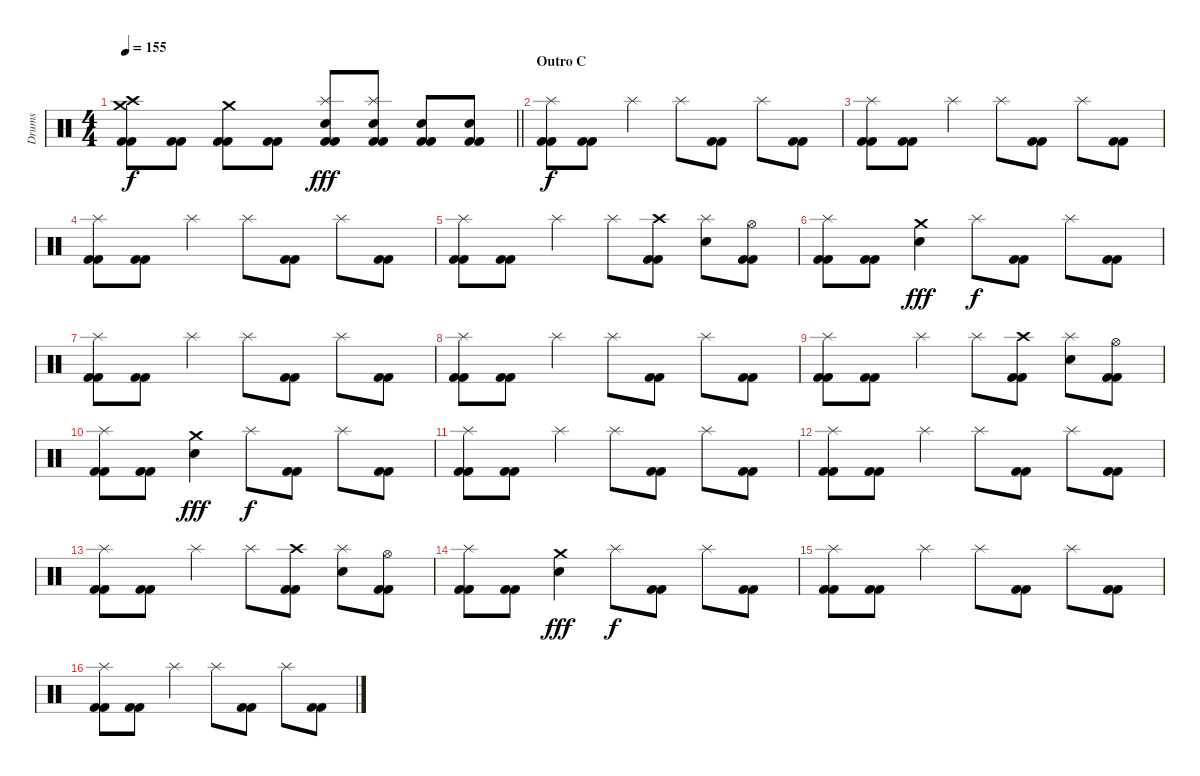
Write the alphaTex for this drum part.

\track ("Drums" "Drums") {instrument percussion}
\staff {score}
\articulation defaults
\ts (4 4)
\tempo 155
\clef neutral
\barLineRight lightlight
\ks c
("Crash medium (hit)" "Crash high (hit)" "Kick (hit) 2" "Kick (hit) 2").8{dy f} ("Kick (hit) 2" "Kick (hit) 2").8 ("Crash medium (hit)" "Kick (hit) 2" "Kick (hit) 2").8 ("Kick (hit) 2" "Kick (hit) 2").8 ("Splash (hit)" "Electric Snare (hit)" "Kick (hit) 2" "Kick (hit) 2").8{dy fff} ("Splash (hit)" "Electric Snare (hit)" "Kick (hit) 2" "Kick (hit) 2").8 ("Electric Snare (hit)" "Kick (hit) 2" "Kick (hit) 2").8 ("Electric Snare (hit)" "Kick (hit) 2" "Kick (hit) 2").8 |
\section ("" "Outro C")
("Splash (hit)" "Kick (hit) 2" "Kick (hit) 2").8{dy f} ("Kick (hit) 2" "Kick (hit) 2").8 "Splash (hit)".4 "Splash (hit)".8 ("Kick (hit) 2" "Kick (hit) 2").8 "Splash (hit)".8 ("Kick (hit) 2" "Kick (hit) 2").8 |
("Splash (hit)" "Kick (hit) 2" "Kick (hit) 2").8 ("Kick (hit) 2" "Kick (hit) 2").8 "Splash (hit)".4 "Splash (hit)".8 ("Kick (hit) 2" "Kick (hit) 2").8 "Splash (hit)".8 ("Kick (hit) 2" "Kick (hit) 2").8 |
("Splash (hit)" "Kick (hit) 2" "Kick (hit) 2").8 ("Kick (hit) 2" "Kick (hit) 2").8 "Splash (hit)".4 "Splash (hit)".8 ("Kick (hit) 2" "Kick (hit) 2").8 "Splash (hit)".8 ("Kick (hit) 2" "Kick (hit) 2").8 |
("Splash (hit)" "Kick (hit) 2" "Kick (hit) 2").8 ("Kick (hit) 2" "Kick (hit) 2").8 "Splash (hit)".4 "Splash (hit)".8 ("Crash high (hit)" "Kick (hit) 2" "Kick (hit) 2").8 ("Splash (hit)" "Electric Snare (hit)").8 ("Hi-Hat (open)" "Kick (hit) 2" "Kick (hit) 2").8 |
("Splash (hit)" "Kick (hit) 2" "Kick (hit) 2").8 ("Kick (hit) 2" "Kick (hit) 2").8 ("Crash medium (hit)" "Electric Snare (hit)").4{dy fff} "Splash (hit)".8{dy f} ("Kick (hit) 2" "Kick (hit) 2").8 "Splash (hit)".8 ("Kick (hit) 2" "Kick (hit) 2").8 |
("Splash (hit)" "Kick (hit) 2" "Kick (hit) 2").8 ("Kick (hit) 2" "Kick (hit) 2").8 "Splash (hit)".4 "Splash (hit)".8 ("Kick (hit) 2" "Kick (hit) 2").8 "Splash (hit)".8 ("Kick (hit) 2" "Kick (hit) 2").8 |
("Splash (hit)" "Kick (hit) 2" "Kick (hit) 2").8 ("Kick (hit) 2" "Kick (hit) 2").8 "Splash (hit)".4 "Splash (hit)".8 ("Kick (hit) 2" "Kick (hit) 2").8 "Splash (hit)".8 ("Kick (hit) 2" "Kick (hit) 2").8 |
("Splash (hit)" "Kick (hit) 2" "Kick (hit) 2").8 ("Kick (hit) 2" "Kick (hit) 2").8 "Splash (hit)".4 "Splash (hit)".8 ("Crash high (hit)" "Kick (hit) 2" "Kick (hit) 2").8 ("Splash (hit)" "Electric Snare (hit)").8 ("Hi-Hat (open)" "Kick (hit) 2" "Kick (hit) 2").8 |
("Splash (hit)" "Kick (hit) 2" "Kick (hit) 2").8 ("Kick (hit) 2" "Kick (hit) 2").8 ("Crash medium (hit)" "Electric Snare (hit)").4{dy fff} "Splash (hit)".8{dy f} ("Kick (hit) 2" "Kick (hit) 2").8 "Splash (hit)".8 ("Kick (hit) 2" "Kick (hit) 2").8 |
("Splash (hit)" "Kick (hit) 2" "Kick (hit) 2").8 ("Kick (hit) 2" "Kick (hit) 2").8 "Splash (hit)".4 "Splash (hit)".8 ("Kick (hit) 2" "Kick (hit) 2").8 "Splash (hit)".8 ("Kick (hit) 2" "Kick (hit) 2").8 |
("Splash (hit)" "Kick (hit) 2" "Kick (hit) 2").8 ("Kick (hit) 2" "Kick (hit) 2").8 "Splash (hit)".4 "Splash (hit)".8 ("Kick (hit) 2" "Kick (hit) 2").8 "Splash (hit)".8 ("Kick (hit) 2" "Kick (hit) 2").8 |
("Splash (hit)" "Kick (hit) 2" "Kick (hit) 2").8 ("Kick (hit) 2" "Kick (hit) 2").8 "Splash (hit)".4 "Splash (hit)".8 ("Crash high (hit)" "Kick (hit) 2" "Kick (hit) 2").8 ("Splash (hit)" "Electric Snare (hit)").8 ("Hi-Hat (open)" "Kick (hit) 2" "Kick (hit) 2").8 |
("Splash (hit)" "Kick (hit) 2" "Kick (hit) 2").8 ("Kick (hit) 2" "Kick (hit) 2").8 ("Crash medium (hit)" "Electric Snare (hit)").4{dy fff} "Splash (hit)".8{dy f} ("Kick (hit) 2" "Kick (hit) 2").8 "Splash (hit)".8 ("Kick (hit) 2" "Kick (hit) 2").8 |
("Splash (hit)" "Kick (hit) 2" "Kick (hit) 2").8 ("Kick (hit) 2" "Kick (hit) 2").8 "Splash (hit)".4 "Splash (hit)".8 ("Kick (hit) 2" "Kick (hit) 2").8 "Splash (hit)".8 ("Kick (hit) 2" "Kick (hit) 2").8 |
("Splash (hit)" "Kick (hit) 2" "Kick (hit) 2").8 ("Kick (hit) 2" "Kick (hit) 2").8 "Splash (hit)".4 "Splash (hit)".8 ("Kick (hit) 2" "Kick (hit) 2").8 "Splash (hit)".8 ("Kick (hit) 2" "Kick (hit) 2").8
